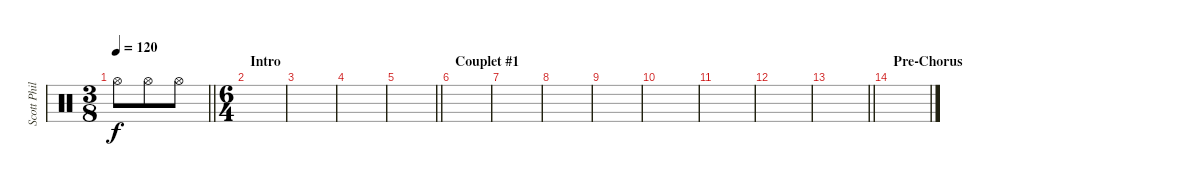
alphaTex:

\track ("Scott Philips" "Scott Phil") {instrument percussion}
\staff {score}
\articulation defaults
\ts (3 8)
\tempo 120
\clef neutral
\barLineRight lightlight
\ks c "Hi-Hat (open)".8{dy f} "Hi-Hat (open)".8 "Hi-Hat (open)".8
|
\ts (6 4)
\section ("" "Intro")
|
|
|
\barLineRight lightlight
|
\section ("" "Couplet #1")
|
|
|
|
|
|
|
\barLineRight lightlight
|
\section ("" "Pre-Chorus")
